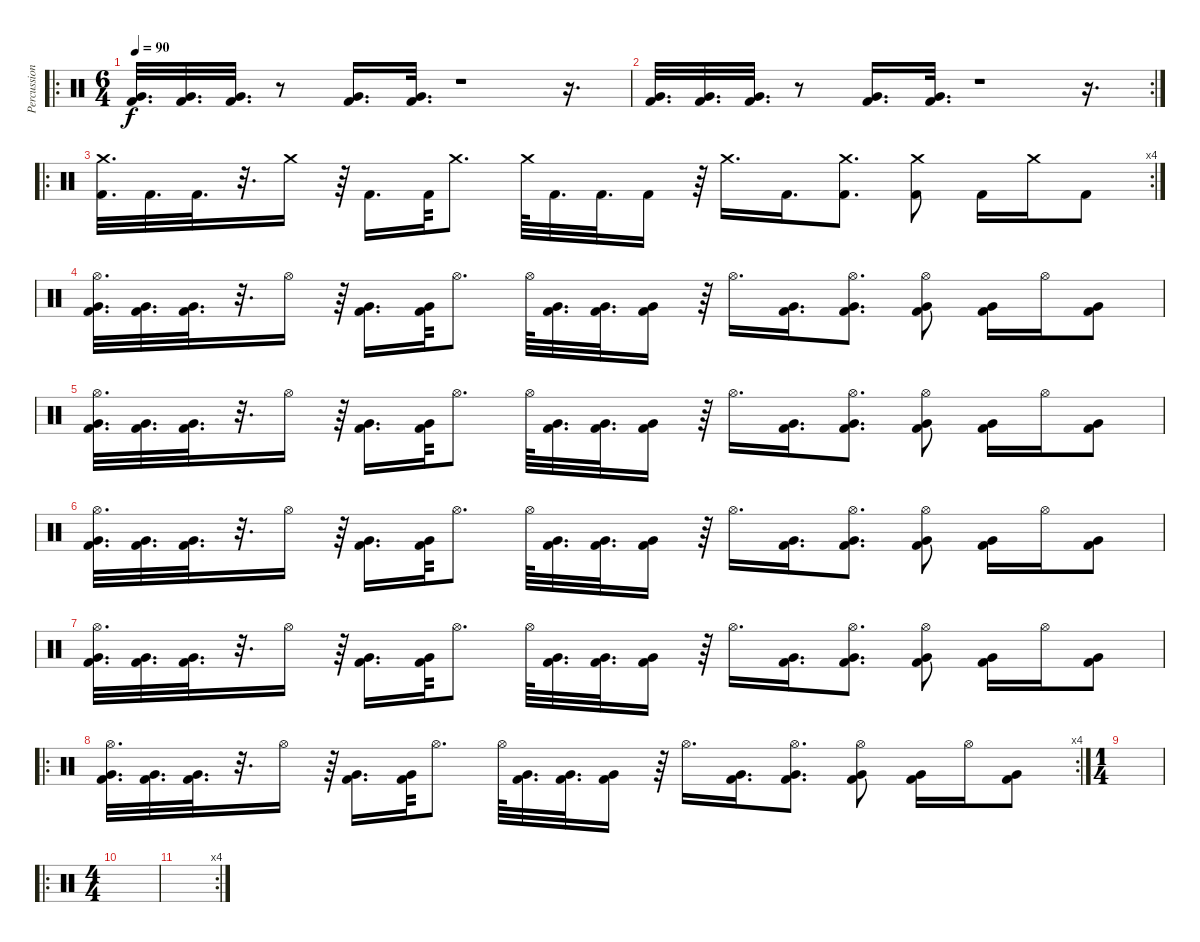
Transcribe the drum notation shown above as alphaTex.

\track ("Percussion" "Percussion") {instrument percussion}
\staff {score}
\articulation defaults
\ro
\ts (6 4)
\tempo 90
\clef neutral
\ks c
("Very Low Tom (hit)" "Kick (hit) 2").32{d dy f} ("Very Low Tom (hit)" "Kick (hit) 2").32{d} ("Very Low Tom (hit)" "Kick (hit) 2").32{d} r.8 ("Very Low Tom (hit)" "Kick (hit) 2").16{d} ("Very Low Tom (hit)" "Kick (hit) 2").32{d} r.1 r.16{d} |
\rc 2
("Very Low Tom (hit)" "Kick (hit) 2").32{d} ("Very Low Tom (hit)" "Kick (hit) 2").32{d} ("Very Low Tom (hit)" "Kick (hit) 2").32{d} r.8 ("Very Low Tom (hit)" "Kick (hit) 2").16{d} ("Very Low Tom (hit)" "Kick (hit) 2").32{d} r.1 r.16{d} |
\ro
\rc 4
("Crash medium (hit)" "Kick (hit) 2").32{d} "Kick (hit) 2".32{d} "Kick (hit) 2".32{d} r.32{d} "Crash medium (hit)".16 r.64 "Kick (hit) 2".16{d} "Kick (hit) 2".64 "Crash medium (hit)".8{d} "Crash medium (hit)".64 "Kick (hit) 2".32{d} "Kick (hit) 2".32{d} "Kick (hit) 2".16 r.64 "Crash medium (hit)".16{d} "Kick (hit) 2".16{d} ("Crash medium (hit)" "Kick (hit) 2").8{d} ("Crash medium (hit)" "Kick (hit) 2").8 "Kick (hit) 2".16 "Crash medium (hit)".16 "Kick (hit) 2".8 |
("Hi-Hat (open)" "Very Low Tom (hit)" "Kick (hit) 2").32{d} ("Very Low Tom (hit)" "Kick (hit) 2").32{d} ("Very Low Tom (hit)" "Kick (hit) 2").32{d} r.32{d} "Hi-Hat (open)".16 r.64 ("Very Low Tom (hit)" "Kick (hit) 2").16{d} ("Very Low Tom (hit)" "Kick (hit) 2").64 "Hi-Hat (open)".8{d} "Hi-Hat (open)".64 ("Very Low Tom (hit)" "Kick (hit) 2").32{d} ("Very Low Tom (hit)" "Kick (hit) 2").32{d} ("Very Low Tom (hit)" "Kick (hit) 2").16 r.64 "Hi-Hat (open)".16{d} ("Very Low Tom (hit)" "Kick (hit) 2").16{d} ("Hi-Hat (open)" "Very Low Tom (hit)" "Kick (hit) 2").8{d} ("Hi-Hat (open)" "Very Low Tom (hit)" "Kick (hit) 2").8 ("Very Low Tom (hit)" "Kick (hit) 2").16 "Hi-Hat (open)".16 ("Very Low Tom (hit)" "Kick (hit) 2").8 |
("Hi-Hat (open)" "Very Low Tom (hit)" "Kick (hit) 2").32{d} ("Very Low Tom (hit)" "Kick (hit) 2").32{d} ("Very Low Tom (hit)" "Kick (hit) 2").32{d} r.32{d} "Hi-Hat (open)".16 r.64 ("Very Low Tom (hit)" "Kick (hit) 2").16{d} ("Very Low Tom (hit)" "Kick (hit) 2").64 "Hi-Hat (open)".8{d} "Hi-Hat (open)".64 ("Very Low Tom (hit)" "Kick (hit) 2").32{d} ("Very Low Tom (hit)" "Kick (hit) 2").32{d} ("Very Low Tom (hit)" "Kick (hit) 2").16 r.64 "Hi-Hat (open)".16{d} ("Very Low Tom (hit)" "Kick (hit) 2").16{d} ("Hi-Hat (open)" "Very Low Tom (hit)" "Kick (hit) 2").8{d} ("Hi-Hat (open)" "Very Low Tom (hit)" "Kick (hit) 2").8 ("Very Low Tom (hit)" "Kick (hit) 2").16 "Hi-Hat (open)".16 ("Very Low Tom (hit)" "Kick (hit) 2").8 |
("Hi-Hat (open)" "Very Low Tom (hit)" "Kick (hit) 2").32{d} ("Very Low Tom (hit)" "Kick (hit) 2").32{d} ("Very Low Tom (hit)" "Kick (hit) 2").32{d} r.32{d} "Hi-Hat (open)".16 r.64 ("Very Low Tom (hit)" "Kick (hit) 2").16{d} ("Very Low Tom (hit)" "Kick (hit) 2").64 "Hi-Hat (open)".8{d} "Hi-Hat (open)".64 ("Very Low Tom (hit)" "Kick (hit) 2").32{d} ("Very Low Tom (hit)" "Kick (hit) 2").32{d} ("Very Low Tom (hit)" "Kick (hit) 2").16 r.64 "Hi-Hat (open)".16{d} ("Very Low Tom (hit)" "Kick (hit) 2").16{d} ("Hi-Hat (open)" "Very Low Tom (hit)" "Kick (hit) 2").8{d} ("Hi-Hat (open)" "Very Low Tom (hit)" "Kick (hit) 2").8 ("Very Low Tom (hit)" "Kick (hit) 2").16 "Hi-Hat (open)".16 ("Very Low Tom (hit)" "Kick (hit) 2").8 |
("Hi-Hat (open)" "Very Low Tom (hit)" "Kick (hit) 2").32{d} ("Very Low Tom (hit)" "Kick (hit) 2").32{d} ("Very Low Tom (hit)" "Kick (hit) 2").32{d} r.32{d} "Hi-Hat (open)".16 r.64 ("Very Low Tom (hit)" "Kick (hit) 2").16{d} ("Very Low Tom (hit)" "Kick (hit) 2").64 "Hi-Hat (open)".8{d} "Hi-Hat (open)".64 ("Very Low Tom (hit)" "Kick (hit) 2").32{d} ("Very Low Tom (hit)" "Kick (hit) 2").32{d} ("Very Low Tom (hit)" "Kick (hit) 2").16 r.64 "Hi-Hat (open)".16{d} ("Very Low Tom (hit)" "Kick (hit) 2").16{d} ("Hi-Hat (open)" "Very Low Tom (hit)" "Kick (hit) 2").8{d} ("Hi-Hat (open)" "Very Low Tom (hit)" "Kick (hit) 2").8 ("Very Low Tom (hit)" "Kick (hit) 2").16 "Hi-Hat (open)".16 ("Very Low Tom (hit)" "Kick (hit) 2").8 |
\ro
\rc 4
("Hi-Hat (open)" "Very Low Tom (hit)" "Kick (hit) 2").32{d} ("Very Low Tom (hit)" "Kick (hit) 2").32{d} ("Very Low Tom (hit)" "Kick (hit) 2").32{d} r.32{d} "Hi-Hat (open)".16 r.64 ("Very Low Tom (hit)" "Kick (hit) 2").16{d} ("Very Low Tom (hit)" "Kick (hit) 2").64 "Hi-Hat (open)".8{d} "Hi-Hat (open)".64 ("Very Low Tom (hit)" "Kick (hit) 2").32{d} ("Very Low Tom (hit)" "Kick (hit) 2").32{d} ("Very Low Tom (hit)" "Kick (hit) 2").16 r.64 "Hi-Hat (open)".16{d} ("Very Low Tom (hit)" "Kick (hit) 2").16{d} ("Hi-Hat (open)" "Very Low Tom (hit)" "Kick (hit) 2").8{d} ("Hi-Hat (open)" "Very Low Tom (hit)" "Kick (hit) 2").8 ("Very Low Tom (hit)" "Kick (hit) 2").16 "Hi-Hat (open)".16 ("Very Low Tom (hit)" "Kick (hit) 2").8 |
\ts (1 4)
|
\ro
\ts (4 4)
|
\rc 4
